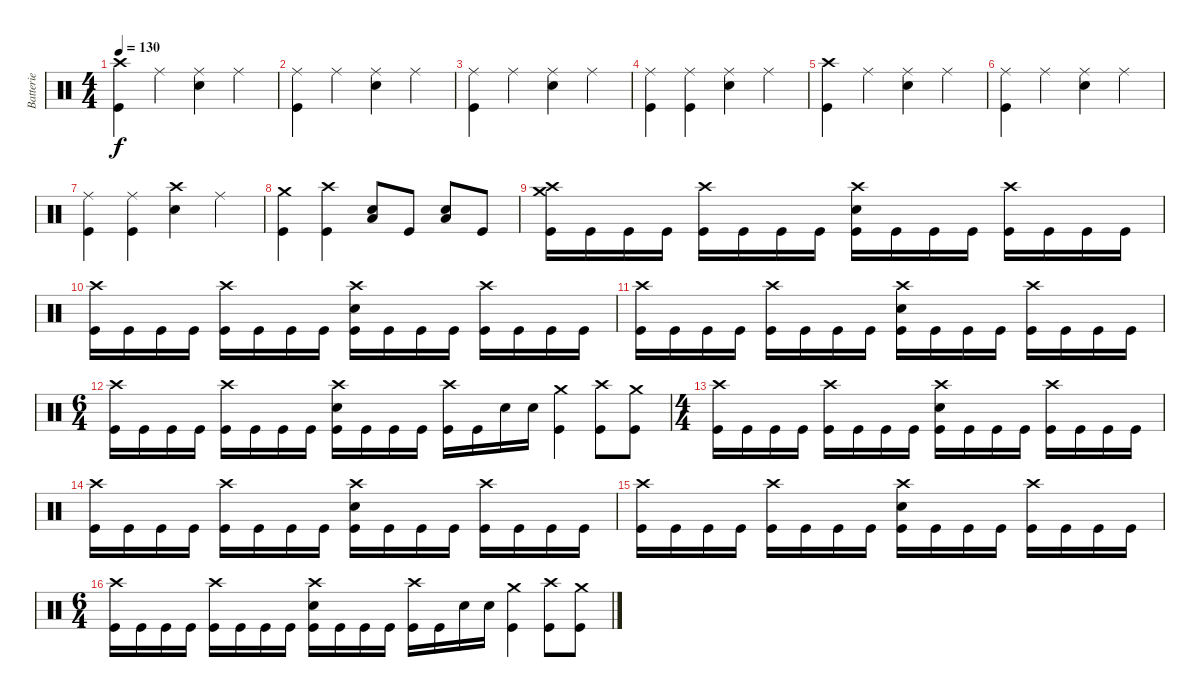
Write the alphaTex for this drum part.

\track ("Batterie" "Batterie") {instrument percussion}
\staff {score}
\articulation defaults
\ts (4 4)
\tempo 130
\clef neutral
\ks c
("Crash high (hit)" "Kick (hit)").4{dy f} "Ride (middle)".4 ("Ride (middle)" "Electric Snare (hit)").4 "Ride (middle)".4 |
("Ride (middle)" "Kick (hit)").4 "Ride (middle)".4 ("Ride (middle)" "Electric Snare (hit)").4 "Ride (middle)".4 |
("Ride (middle)" "Kick (hit)").4 "Ride (middle)".4 ("Ride (middle)" "Electric Snare (hit)").4 "Ride (middle)".4 |
("Ride (middle)" "Kick (hit)").4 ("Ride (middle)" "Kick (hit)").4 ("Ride (middle)" "Electric Snare (hit)").4 "Ride (middle)".4 |
("Crash high (hit)" "Kick (hit)").4 "Ride (middle)".4 ("Ride (middle)" "Electric Snare (hit)").4 "Ride (middle)".4 |
("Ride (middle)" "Kick (hit)").4 "Ride (middle)".4 ("Ride (middle)" "Electric Snare (hit)").4 "Ride (middle)".4 |
("Ride (middle)" "Kick (hit)").4 ("Ride (middle)" "Kick (hit)").4 ("Crash high (hit)" "Electric Snare (hit)").4 "Ride (middle)".4 |
("Crash medium (hit)" "Kick (hit)").4 ("Crash high (hit)" "Kick (hit)").4 ("Electric Snare (hit)" "Low Floor Tom (hit)").8 "Kick (hit)".8 ("Electric Snare (hit)" "Low Floor Tom (hit)").8 "Kick (hit)".8 |
("Crash medium (hit)" "Crash high (hit)" "Kick (hit)").16 "Kick (hit)".16 "Kick (hit)".16 "Kick (hit)".16 ("Crash high (hit)" "Kick (hit)").16 "Kick (hit)".16 "Kick (hit)".16 "Kick (hit)".16 ("Crash high (hit)" "Electric Snare (hit)" "Kick (hit)").16 "Kick (hit)".16 "Kick (hit)".16 "Kick (hit)".16 ("Crash high (hit)" "Kick (hit)").16 "Kick (hit)".16 "Kick (hit)".16 "Kick (hit)".16 |
("Crash high (hit)" "Kick (hit)").16 "Kick (hit)".16 "Kick (hit)".16 "Kick (hit)".16 ("Crash high (hit)" "Kick (hit)").16 "Kick (hit)".16 "Kick (hit)".16 "Kick (hit)".16 ("Crash high (hit)" "Electric Snare (hit)" "Kick (hit)").16 "Kick (hit)".16 "Kick (hit)".16 "Kick (hit)".16 ("Crash high (hit)" "Kick (hit)").16 "Kick (hit)".16 "Kick (hit)".16 "Kick (hit)".16 |
("Crash high (hit)" "Kick (hit)").16 "Kick (hit)".16 "Kick (hit)".16 "Kick (hit)".16 ("Crash high (hit)" "Kick (hit)").16 "Kick (hit)".16 "Kick (hit)".16 "Kick (hit)".16 ("Crash high (hit)" "Electric Snare (hit)" "Kick (hit)").16 "Kick (hit)".16 "Kick (hit)".16 "Kick (hit)".16 ("Crash high (hit)" "Kick (hit)").16 "Kick (hit)".16 "Kick (hit)".16 "Kick (hit)".16 |
\ts (6 4)
("Crash high (hit)" "Kick (hit)").16 "Kick (hit)".16 "Kick (hit)".16 "Kick (hit)".16 ("Crash high (hit)" "Kick (hit)").16 "Kick (hit)".16 "Kick (hit)".16 "Kick (hit)".16 ("Crash high (hit)" "Electric Snare (hit)" "Kick (hit)").16 "Kick (hit)".16 "Kick (hit)".16 "Kick (hit)".16 ("Crash high (hit)" "Kick (hit)").16 "Kick (hit)".16 "Electric Snare (hit)".16 "Electric Snare (hit)".16 ("Crash medium (hit)" "Kick (hit)").4 ("Crash high (hit)" "Kick (hit)").8 ("Crash medium (hit)" "Kick (hit)").8 |
\ts (4 4)
("Crash high (hit)" "Kick (hit)").16 "Kick (hit)".16 "Kick (hit)".16 "Kick (hit)".16 ("Crash high (hit)" "Kick (hit)").16 "Kick (hit)".16 "Kick (hit)".16 "Kick (hit)".16 ("Crash high (hit)" "Electric Snare (hit)" "Kick (hit)").16 "Kick (hit)".16 "Kick (hit)".16 "Kick (hit)".16 ("Crash high (hit)" "Kick (hit)").16 "Kick (hit)".16 "Kick (hit)".16 "Kick (hit)".16 |
("Crash high (hit)" "Kick (hit)").16 "Kick (hit)".16 "Kick (hit)".16 "Kick (hit)".16 ("Crash high (hit)" "Kick (hit)").16 "Kick (hit)".16 "Kick (hit)".16 "Kick (hit)".16 ("Crash high (hit)" "Electric Snare (hit)" "Kick (hit)").16 "Kick (hit)".16 "Kick (hit)".16 "Kick (hit)".16 ("Crash high (hit)" "Kick (hit)").16 "Kick (hit)".16 "Kick (hit)".16 "Kick (hit)".16 |
("Crash high (hit)" "Kick (hit)").16 "Kick (hit)".16 "Kick (hit)".16 "Kick (hit)".16 ("Crash high (hit)" "Kick (hit)").16 "Kick (hit)".16 "Kick (hit)".16 "Kick (hit)".16 ("Crash high (hit)" "Electric Snare (hit)" "Kick (hit)").16 "Kick (hit)".16 "Kick (hit)".16 "Kick (hit)".16 ("Crash high (hit)" "Kick (hit)").16 "Kick (hit)".16 "Kick (hit)".16 "Kick (hit)".16 |
\ts (6 4)
("Crash high (hit)" "Kick (hit)").16 "Kick (hit)".16 "Kick (hit)".16 "Kick (hit)".16 ("Crash high (hit)" "Kick (hit)").16 "Kick (hit)".16 "Kick (hit)".16 "Kick (hit)".16 ("Crash high (hit)" "Electric Snare (hit)" "Kick (hit)").16 "Kick (hit)".16 "Kick (hit)".16 "Kick (hit)".16 ("Crash high (hit)" "Kick (hit)").16 "Kick (hit)".16 "Electric Snare (hit)".16 "Electric Snare (hit)".16 ("Crash medium (hit)" "Kick (hit)").4 ("Crash high (hit)" "Kick (hit)").8 ("Crash medium (hit)" "Kick (hit)").8
